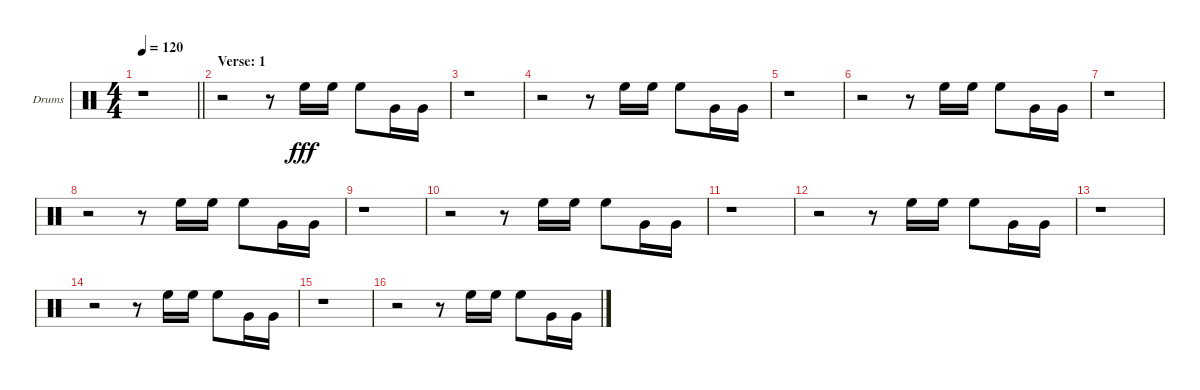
\bracketExtendMode groupsimilarinstruments
\firstSystemTrackNameOrientation horizontal
\otherSystemsTrackNameOrientation horizontal
\track ("Drumkit" "Drums") {instrument percussion}
\staff {score}
\articulation defaults
\ts (4 4)
\tempo 120
\clef neutral
\barLineRight lightlight
\ks c
r.1{dy fff} |
\section ("" "Verse: 1")
r.2 r.8 "High Floor Tom (hit)".16 "High Floor Tom (hit)".16 "High Floor Tom (hit)".8 "Very Low Tom (hit)".16 "Very Low Tom (hit)".16 |
r.1 |
r.2 r.8 "High Floor Tom (hit)".16 "High Floor Tom (hit)".16 "High Floor Tom (hit)".8 "Very Low Tom (hit)".16 "Very Low Tom (hit)".16 |
r.1 |
r.2 r.8 "High Floor Tom (hit)".16 "High Floor Tom (hit)".16 "High Floor Tom (hit)".8 "Very Low Tom (hit)".16 "Very Low Tom (hit)".16 |
r.1 |
r.2 r.8 "High Floor Tom (hit)".16 "High Floor Tom (hit)".16 "High Floor Tom (hit)".8 "Very Low Tom (hit)".16 "Very Low Tom (hit)".16 |
r.1 |
r.2 r.8 "High Floor Tom (hit)".16 "High Floor Tom (hit)".16 "High Floor Tom (hit)".8 "Very Low Tom (hit)".16 "Very Low Tom (hit)".16 |
r.1 |
r.2 r.8 "High Floor Tom (hit)".16 "High Floor Tom (hit)".16 "High Floor Tom (hit)".8 "Very Low Tom (hit)".16 "Very Low Tom (hit)".16 |
r.1 |
r.2 r.8 "High Floor Tom (hit)".16 "High Floor Tom (hit)".16 "High Floor Tom (hit)".8 "Very Low Tom (hit)".16 "Very Low Tom (hit)".16 |
r.1 |
r.2 r.8 "High Floor Tom (hit)".16 "High Floor Tom (hit)".16 "High Floor Tom (hit)".8 "Very Low Tom (hit)".16 "Very Low Tom (hit)".16
